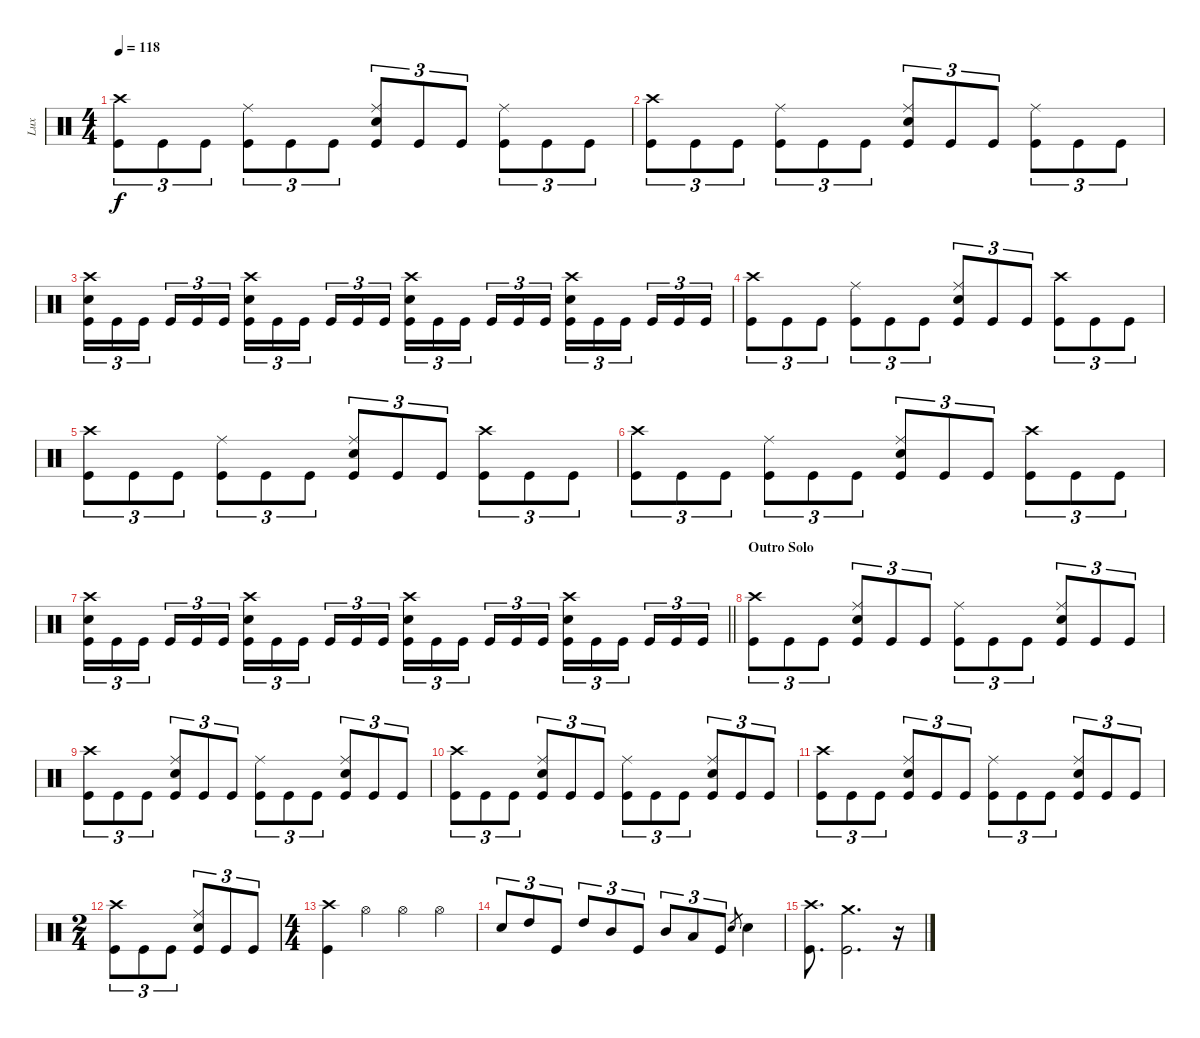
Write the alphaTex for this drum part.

\track ("Lux" "Lux") {instrument percussion}
\staff {score}
\articulation defaults
\ts (4 4)
\tempo 118
\clef neutral
\ks c
("Crash high (hit)" "Kick (hit)").8{tu (3 2) dy f} "Kick (hit)".8{tu (3 2)} "Kick (hit)".8{tu (3 2)} ("Ride (middle)" "Kick (hit)").8{tu (3 2)} "Kick (hit)".8{tu (3 2)} "Kick (hit)".8{tu (3 2)} ("Ride (middle)" "Snare (hit) 2" "Kick (hit)").8{tu (3 2)} "Kick (hit)".8{tu (3 2)} "Kick (hit)".8{tu (3 2)} ("Ride (middle)" "Kick (hit)").8{tu (3 2)} "Kick (hit)".8{tu (3 2)} "Kick (hit)".8{tu (3 2)} |
("Crash high (hit)" "Kick (hit)").8{tu (3 2)} "Kick (hit)".8{tu (3 2)} "Kick (hit)".8{tu (3 2)} ("Ride (middle)" "Kick (hit)").8{tu (3 2)} "Kick (hit)".8{tu (3 2)} "Kick (hit)".8{tu (3 2)} ("Ride (middle)" "Snare (hit) 2" "Kick (hit)").8{tu (3 2)} "Kick (hit)".8{tu (3 2)} "Kick (hit)".8{tu (3 2)} ("Ride (middle)" "Kick (hit)").8{tu (3 2)} "Kick (hit)".8{tu (3 2)} "Kick (hit)".8{tu (3 2)} |
("Crash high (hit)" "Snare (hit) 2" "Kick (hit)").16{tu (3 2)} "Kick (hit)".16{tu (3 2)} "Kick (hit)".16{tu (3 2) beam splitsecondary} "Kick (hit)".16{tu (3 2)} "Kick (hit)".16{tu (3 2)} "Kick (hit)".16{tu (3 2)} ("Crash high (hit)" "Snare (hit) 2" "Kick (hit)").16{tu (3 2)} "Kick (hit)".16{tu (3 2)} "Kick (hit)".16{tu (3 2) beam splitsecondary} "Kick (hit)".16{tu (3 2)} "Kick (hit)".16{tu (3 2)} "Kick (hit)".16{tu (3 2)} ("Crash high (hit)" "Snare (hit) 2" "Kick (hit)").16{tu (3 2)} "Kick (hit)".16{tu (3 2)} "Kick (hit)".16{tu (3 2) beam splitsecondary} "Kick (hit)".16{tu (3 2)} "Kick (hit)".16{tu (3 2)} "Kick (hit)".16{tu (3 2)} ("Crash high (hit)" "Snare (hit) 2" "Kick (hit)").16{tu (3 2)} "Kick (hit)".16{tu (3 2)} "Kick (hit)".16{tu (3 2) beam splitsecondary} "Kick (hit)".16{tu (3 2)} "Kick (hit)".16{tu (3 2)} "Kick (hit)".16{tu (3 2)} |
("Crash high (hit)" "Kick (hit)").8{tu (3 2)} "Kick (hit)".8{tu (3 2)} "Kick (hit)".8{tu (3 2)} ("Ride (middle)" "Kick (hit)").8{tu (3 2)} "Kick (hit)".8{tu (3 2)} "Kick (hit)".8{tu (3 2)} ("Ride (middle)" "Snare (hit) 2" "Kick (hit)").8{tu (3 2)} "Kick (hit)".8{tu (3 2)} "Kick (hit)".8{tu (3 2)} ("Crash high (hit)" "Kick (hit)").8{tu (3 2)} "Kick (hit)".8{tu (3 2)} "Kick (hit)".8{tu (3 2)} |
("Crash high (hit)" "Kick (hit)").8{tu (3 2)} "Kick (hit)".8{tu (3 2)} "Kick (hit)".8{tu (3 2)} ("Ride (middle)" "Kick (hit)").8{tu (3 2)} "Kick (hit)".8{tu (3 2)} "Kick (hit)".8{tu (3 2)} ("Ride (middle)" "Snare (hit) 2" "Kick (hit)").8{tu (3 2)} "Kick (hit)".8{tu (3 2)} "Kick (hit)".8{tu (3 2)} ("Crash high (hit)" "Kick (hit)").8{tu (3 2)} "Kick (hit)".8{tu (3 2)} "Kick (hit)".8{tu (3 2)} |
("Crash high (hit)" "Kick (hit)").8{tu (3 2)} "Kick (hit)".8{tu (3 2)} "Kick (hit)".8{tu (3 2)} ("Ride (middle)" "Kick (hit)").8{tu (3 2)} "Kick (hit)".8{tu (3 2)} "Kick (hit)".8{tu (3 2)} ("Ride (middle)" "Snare (hit) 2" "Kick (hit)").8{tu (3 2)} "Kick (hit)".8{tu (3 2)} "Kick (hit)".8{tu (3 2)} ("Crash high (hit)" "Kick (hit)").8{tu (3 2)} "Kick (hit)".8{tu (3 2)} "Kick (hit)".8{tu (3 2)} |
\barLineRight lightlight
("Crash high (hit)" "Snare (hit) 2" "Kick (hit)").16{tu (3 2)} "Kick (hit)".16{tu (3 2)} "Kick (hit)".16{tu (3 2) beam splitsecondary} "Kick (hit)".16{tu (3 2)} "Kick (hit)".16{tu (3 2)} "Kick (hit)".16{tu (3 2)} ("Crash high (hit)" "Snare (hit) 2" "Kick (hit)").16{tu (3 2)} "Kick (hit)".16{tu (3 2)} "Kick (hit)".16{tu (3 2) beam splitsecondary} "Kick (hit)".16{tu (3 2)} "Kick (hit)".16{tu (3 2)} "Kick (hit)".16{tu (3 2)} ("Crash high (hit)" "Snare (hit) 2" "Kick (hit)").16{tu (3 2)} "Kick (hit)".16{tu (3 2)} "Kick (hit)".16{tu (3 2) beam splitsecondary} "Kick (hit)".16{tu (3 2)} "Kick (hit)".16{tu (3 2)} "Kick (hit)".16{tu (3 2)} ("Crash high (hit)" "Snare (hit) 2" "Kick (hit)").16{tu (3 2)} "Kick (hit)".16{tu (3 2)} "Kick (hit)".16{tu (3 2) beam splitsecondary} "Kick (hit)".16{tu (3 2)} "Kick (hit)".16{tu (3 2)} "Kick (hit)".16{tu (3 2)} |
\section ("" "Outro Solo")
("Crash high (hit)" "Kick (hit)").8{tu (3 2)} "Kick (hit)".8{tu (3 2)} "Kick (hit)".8{tu (3 2)} ("Ride (middle)" "Snare (hit) 2" "Kick (hit)").8{tu (3 2)} "Kick (hit)".8{tu (3 2)} "Kick (hit)".8{tu (3 2)} ("Ride (middle)" "Kick (hit)").8{tu (3 2)} "Kick (hit)".8{tu (3 2)} "Kick (hit)".8{tu (3 2)} ("Ride (middle)" "Snare (hit) 2" "Kick (hit)").8{tu (3 2)} "Kick (hit)".8{tu (3 2)} "Kick (hit)".8{tu (3 2)} |
("Crash high (hit)" "Kick (hit)").8{tu (3 2)} "Kick (hit)".8{tu (3 2)} "Kick (hit)".8{tu (3 2)} ("Ride (middle)" "Snare (hit) 2" "Kick (hit)").8{tu (3 2)} "Kick (hit)".8{tu (3 2)} "Kick (hit)".8{tu (3 2)} ("Ride (middle)" "Kick (hit)").8{tu (3 2)} "Kick (hit)".8{tu (3 2)} "Kick (hit)".8{tu (3 2)} ("Ride (middle)" "Snare (hit) 2" "Kick (hit)").8{tu (3 2)} "Kick (hit)".8{tu (3 2)} "Kick (hit)".8{tu (3 2)} |
("Crash high (hit)" "Kick (hit)").8{tu (3 2)} "Kick (hit)".8{tu (3 2)} "Kick (hit)".8{tu (3 2)} ("Ride (middle)" "Snare (hit) 2" "Kick (hit)").8{tu (3 2)} "Kick (hit)".8{tu (3 2)} "Kick (hit)".8{tu (3 2)} ("Ride (middle)" "Kick (hit)").8{tu (3 2)} "Kick (hit)".8{tu (3 2)} "Kick (hit)".8{tu (3 2)} ("Ride (middle)" "Snare (hit) 2" "Kick (hit)").8{tu (3 2)} "Kick (hit)".8{tu (3 2)} "Kick (hit)".8{tu (3 2)} |
("Crash high (hit)" "Kick (hit)").8{tu (3 2)} "Kick (hit)".8{tu (3 2)} "Kick (hit)".8{tu (3 2)} ("Ride (middle)" "Snare (hit) 2" "Kick (hit)").8{tu (3 2)} "Kick (hit)".8{tu (3 2)} "Kick (hit)".8{tu (3 2)} ("Ride (middle)" "Kick (hit)").8{tu (3 2)} "Kick (hit)".8{tu (3 2)} "Kick (hit)".8{tu (3 2)} ("Ride (middle)" "Snare (hit) 2" "Kick (hit)").8{tu (3 2)} "Kick (hit)".8{tu (3 2)} "Kick (hit)".8{tu (3 2)} |
\ts (2 4)
("Crash high (hit)" "Kick (hit)").8{tu (3 2)} "Kick (hit)".8{tu (3 2)} "Kick (hit)".8{tu (3 2)} ("Ride (middle)" "Snare (hit) 2" "Kick (hit)").8{tu (3 2)} "Kick (hit)".8{tu (3 2)} "Kick (hit)".8{tu (3 2)} |
\ts (4 4)
("Crash high (hit)" "Kick (hit)").4 "Hi-Hat (open)".4 "Hi-Hat (open)".4 "Hi-Hat (open)".4 |
"Snare (hit) 2".8{tu (3 2)} "High Tom (hit)".8{tu (3 2)} "Kick (hit)".8{tu (3 2)} "High Tom (hit)".8{tu (3 2)} "Mid Tom (hit)".8{tu (3 2)} "Kick (hit)".8{tu (3 2)} "Mid Tom (hit)".8{tu (3 2)} "Low Tom (hit)".8{tu (3 2)} "Kick (hit)".8{tu (3 2)} "Snare (hit) 2".8{gr} "Snare (hit) 2".4 |
("Crash high (hit)" "Kick (hit)").8{d} ("Crash medium (hit)" "Kick (hit)").2{d} r.16
